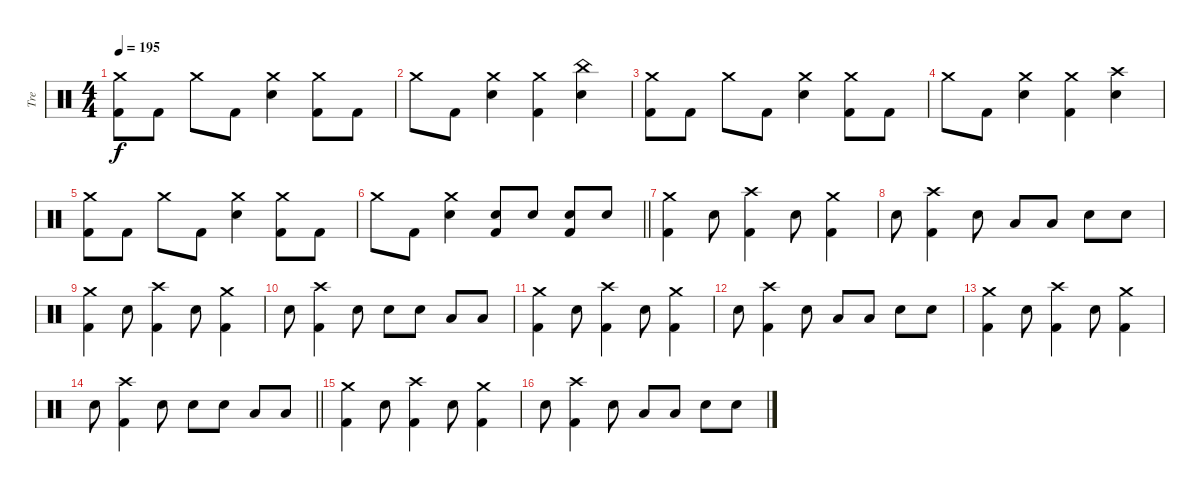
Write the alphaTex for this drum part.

\track ("Tre" "Tre") {instrument percussion}
\staff {score}
\articulation defaults
\ts (4 4)
\tempo 195
\clef neutral
\ks c
("Crash medium (hit)" "Kick (hit) 2").8{dy f} "Kick (hit) 2".8 "Crash medium (hit)".8 "Kick (hit) 2".8 ("Crash medium (hit)" "Snare (hit) 2").4 ("Crash medium (hit)" "Kick (hit) 2").8 "Kick (hit) 2".8 |
"Crash medium (hit)".8 "Kick (hit) 2".8 ("Crash medium (hit)" "Snare (hit) 2").4 ("Crash medium (hit)" "Kick (hit) 2").4 ("China (hit)" "Snare (hit) 2").4 |
("Crash medium (hit)" "Kick (hit) 2").8 "Kick (hit) 2".8 "Crash medium (hit)".8 "Kick (hit) 2".8 ("Crash medium (hit)" "Snare (hit) 2").4 ("Crash medium (hit)" "Kick (hit) 2").8 "Kick (hit) 2".8 |
"Crash medium (hit)".8 "Kick (hit) 2".8 ("Crash medium (hit)" "Snare (hit) 2").4 ("Crash medium (hit)" "Kick (hit) 2").4 ("Crash high (hit)" "Snare (hit) 2").4 |
("Crash medium (hit)" "Kick (hit) 2").8 "Kick (hit) 2".8 "Crash medium (hit)".8 "Kick (hit) 2".8 ("Crash medium (hit)" "Snare (hit) 2").4 ("Crash medium (hit)" "Kick (hit) 2").8 "Kick (hit) 2".8 |
\barLineRight lightlight "Crash medium (hit)".8 "Kick (hit) 2".8
("Crash medium (hit)" "Snare (hit) 2").4 ("Snare (hit) 2" "Kick (hit) 2").8 "Snare (hit) 2".8 ("Snare (hit) 2" "Kick (hit) 2").8 "Snare (hit) 2".8 |
("Crash medium (hit)" "Kick (hit) 2").4 "Snare (hit) 2".8 ("Crash high (hit)" "Kick (hit) 2").4 "Snare (hit) 2".8 ("Crash medium (hit)" "Kick (hit) 2").4 |
"Snare (hit) 2".8 ("Crash high (hit)" "Kick (hit) 2").4 "Snare (hit) 2".8 "Low Tom (hit)".8 "Low Tom (hit)".8 "Snare (hit) 2".8 "Snare (hit) 2".8 |
("Crash medium (hit)" "Kick (hit) 2").4 "Snare (hit) 2".8 ("Crash high (hit)" "Kick (hit) 2").4 "Snare (hit) 2".8 ("Crash medium (hit)" "Kick (hit) 2").4 |
"Snare (hit) 2".8 ("Crash high (hit)" "Kick (hit) 2").4 "Snare (hit) 2".8 "Snare (hit) 2".8 "Snare (hit) 2".8 "Low Tom (hit)".8 "Low Tom (hit)".8 |
("Crash medium (hit)" "Kick (hit) 2").4 "Snare (hit) 2".8 ("Crash high (hit)" "Kick (hit) 2").4 "Snare (hit) 2".8 ("Crash medium (hit)" "Kick (hit) 2").4 |
"Snare (hit) 2".8 ("Crash high (hit)" "Kick (hit) 2").4 "Snare (hit) 2".8 "Low Tom (hit)".8 "Low Tom (hit)".8 "Snare (hit) 2".8 "Snare (hit) 2".8 |
("Crash medium (hit)" "Kick (hit) 2").4 "Snare (hit) 2".8 ("Crash high (hit)" "Kick (hit) 2").4 "Snare (hit) 2".8 ("Crash medium (hit)" "Kick (hit) 2").4 |
\barLineRight lightlight "Snare (hit) 2".8
("Crash high (hit)" "Kick (hit) 2").4 "Snare (hit) 2".8 "Snare (hit) 2".8 "Snare (hit) 2".8 "Low Tom (hit)".8 "Low Tom (hit)".8 |
("Crash medium (hit)" "Kick (hit) 2").4 "Snare (hit) 2".8 ("Crash high (hit)" "Kick (hit) 2").4 "Snare (hit) 2".8 ("Crash medium (hit)" "Kick (hit) 2").4 |
"Snare (hit) 2".8 ("Crash high (hit)" "Kick (hit) 2").4 "Snare (hit) 2".8 "Low Tom (hit)".8 "Low Tom (hit)".8 "Snare (hit) 2".8 "Snare (hit) 2".8
